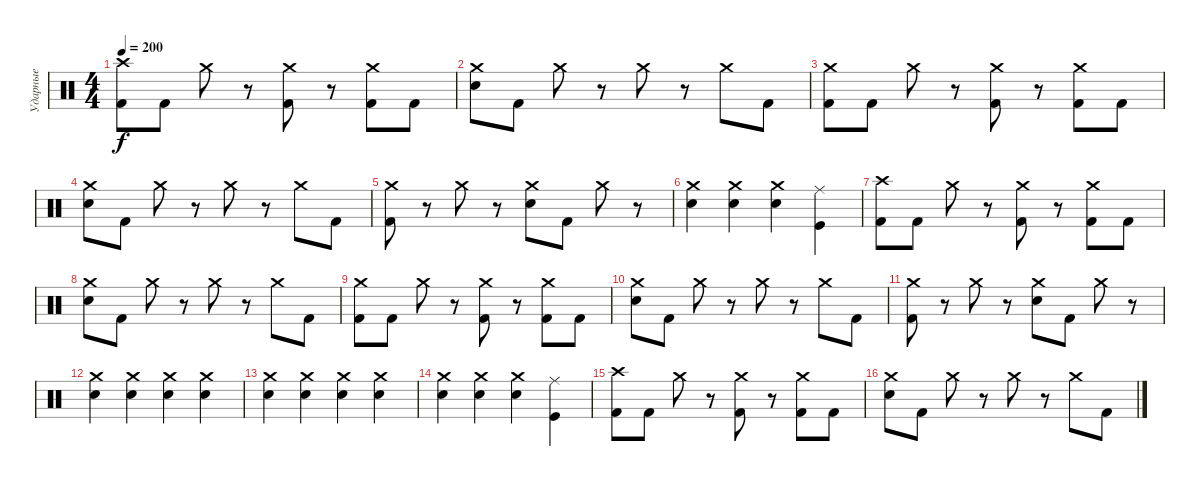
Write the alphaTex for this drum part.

\track ("Ударные" "Ударные") {instrument percussion}
\staff {score}
\articulation defaults
\ts (4 4)
\tempo 200
\clef neutral
\ks c
("Crash high (hit)" "Kick (hit) 2").8{dy f} "Kick (hit) 2".8 "Crash medium (hit)".8 r.8 ("Crash medium (hit)" "Kick (hit) 2").8 r.8 ("Crash medium (hit)" "Kick (hit) 2").8 "Kick (hit) 2".8 |
("Crash medium (hit)" "Electric Snare (hit)").8 "Kick (hit) 2".8 "Crash medium (hit)".8 r.8 "Crash medium (hit)".8 r.8 "Crash medium (hit)".8 "Kick (hit) 2".8 |
("Crash medium (hit)" "Kick (hit) 2").8 "Kick (hit) 2".8 "Crash medium (hit)".8 r.8 ("Crash medium (hit)" "Kick (hit) 2").8 r.8 ("Crash medium (hit)" "Kick (hit) 2").8 "Kick (hit) 2".8 |
("Crash medium (hit)" "Electric Snare (hit)").8 "Kick (hit) 2".8 "Crash medium (hit)".8 r.8 "Crash medium (hit)".8 r.8 "Crash medium (hit)".8 "Kick (hit) 2".8 |
("Crash medium (hit)" "Kick (hit) 2").8 r.8 "Crash medium (hit)".8 r.8 ("Crash medium (hit)" "Electric Snare (hit)").8 "Kick (hit) 2".8 "Crash medium (hit)".8 r.8 |
("Crash medium (hit)" "Electric Snare (hit)").4 ("Crash medium (hit)" "Electric Snare (hit)").4 ("Crash medium (hit)" "Electric Snare (hit)").4 ("Ride (middle)" "Kick (hit)").4 |
("Crash high (hit)" "Kick (hit) 2").8 "Kick (hit) 2".8 "Crash medium (hit)".8 r.8 ("Crash medium (hit)" "Kick (hit) 2").8 r.8 ("Crash medium (hit)" "Kick (hit) 2").8 "Kick (hit) 2".8 |
("Crash medium (hit)" "Electric Snare (hit)").8 "Kick (hit) 2".8 "Crash medium (hit)".8 r.8 "Crash medium (hit)".8 r.8 "Crash medium (hit)".8 "Kick (hit) 2".8 |
("Crash medium (hit)" "Kick (hit) 2").8 "Kick (hit) 2".8 "Crash medium (hit)".8 r.8 ("Crash medium (hit)" "Kick (hit) 2").8 r.8 ("Crash medium (hit)" "Kick (hit) 2").8 "Kick (hit) 2".8 |
("Crash medium (hit)" "Electric Snare (hit)").8 "Kick (hit) 2".8 "Crash medium (hit)".8 r.8 "Crash medium (hit)".8 r.8 "Crash medium (hit)".8 "Kick (hit) 2".8 |
("Crash medium (hit)" "Kick (hit) 2").8 r.8 "Crash medium (hit)".8 r.8 ("Crash medium (hit)" "Electric Snare (hit)").8 "Kick (hit) 2".8 "Crash medium (hit)".8 r.8 |
("Crash medium (hit)" "Electric Snare (hit)").4 ("Crash medium (hit)" "Electric Snare (hit)").4 ("Crash medium (hit)" "Electric Snare (hit)").4 ("Crash medium (hit)" "Electric Snare (hit)").4 |
("Crash medium (hit)" "Electric Snare (hit)").4 ("Crash medium (hit)" "Electric Snare (hit)").4 ("Crash medium (hit)" "Electric Snare (hit)").4 ("Crash medium (hit)" "Electric Snare (hit)").4 |
("Crash medium (hit)" "Electric Snare (hit)").4 ("Crash medium (hit)" "Electric Snare (hit)").4 ("Crash medium (hit)" "Electric Snare (hit)").4 ("Ride (middle)" "Kick (hit)").4 |
("Crash high (hit)" "Kick (hit) 2").8 "Kick (hit) 2".8 "Crash medium (hit)".8 r.8 ("Crash medium (hit)" "Kick (hit) 2").8 r.8 ("Crash medium (hit)" "Kick (hit) 2").8 "Kick (hit) 2".8 |
("Crash medium (hit)" "Electric Snare (hit)").8 "Kick (hit) 2".8 "Crash medium (hit)".8 r.8 "Crash medium (hit)".8 r.8 "Crash medium (hit)".8 "Kick (hit) 2".8
